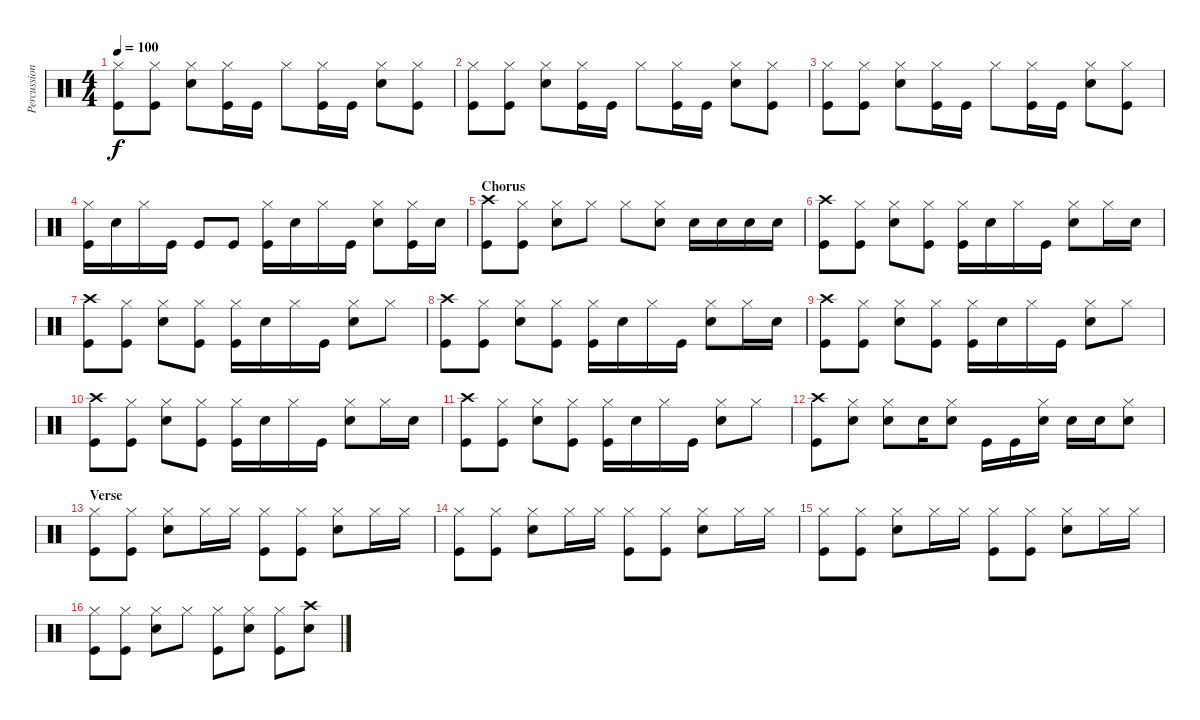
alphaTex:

\track ("Percussion" "Percussion") {instrument percussion}
\staff {score}
\articulation defaults
\ts (4 4)
\tempo 100
\clef neutral
\ks c
("Hi-Hat (closed)" "Kick (hit)").8{dy f} ("Hi-Hat (closed)" "Kick (hit)").8 ("Hi-Hat (closed)" "Snare (hit) 2").8 ("Hi-Hat (closed)" "Kick (hit)").16 "Kick (hit)".16 "Hi-Hat (closed)".8 ("Hi-Hat (closed)" "Kick (hit)").16 "Kick (hit)".16 ("Hi-Hat (closed)" "Snare (hit) 2").8 ("Hi-Hat (closed)" "Kick (hit)").8 |
("Hi-Hat (closed)" "Kick (hit)").8 ("Hi-Hat (closed)" "Kick (hit)").8 ("Hi-Hat (closed)" "Snare (hit) 2").8 ("Hi-Hat (closed)" "Kick (hit)").16 "Kick (hit)".16 "Hi-Hat (closed)".8 ("Hi-Hat (closed)" "Kick (hit)").16 "Kick (hit)".16 ("Hi-Hat (closed)" "Snare (hit) 2").8 ("Hi-Hat (closed)" "Kick (hit)").8 |
("Hi-Hat (closed)" "Kick (hit)").8 ("Hi-Hat (closed)" "Kick (hit)").8 ("Hi-Hat (closed)" "Snare (hit) 2").8 ("Hi-Hat (closed)" "Kick (hit)").16 "Kick (hit)".16 "Hi-Hat (closed)".8 ("Hi-Hat (closed)" "Kick (hit)").16 "Kick (hit)".16 ("Hi-Hat (closed)" "Snare (hit) 2").8 ("Hi-Hat (closed)" "Kick (hit)").8 |
("Hi-Hat (closed)" "Kick (hit)").16 "Snare (hit) 2".16 "Hi-Hat (closed)".16 "Kick (hit)".16 "Kick (hit)".8 "Kick (hit)".8 ("Hi-Hat (closed)" "Kick (hit)").16 "Snare (hit) 2".16 "Hi-Hat (closed)".16 "Kick (hit)".16 ("Hi-Hat (closed)" "Snare (hit) 2").8 ("Hi-Hat (closed)" "Kick (hit)").16 "Snare (hit) 2".16 |
\section ("" "Chorus")
("Crash high (hit)" "Kick (hit)").8 ("Hi-Hat (closed)" "Kick (hit)").8 ("Hi-Hat (closed)" "Snare (hit) 2").8 "Hi-Hat (closed)".8 "Hi-Hat (closed)".8 ("Hi-Hat (closed)" "Snare (hit) 2").8 "Snare (hit) 2".16 "Snare (hit) 2".16 "Snare (hit) 2".16 "Snare (hit) 2".16 |
("Crash high (hit)" "Kick (hit)").8 ("Hi-Hat (closed)" "Kick (hit)").8 ("Hi-Hat (closed)" "Snare (hit) 2").8 ("Hi-Hat (closed)" "Kick (hit)").8 ("Hi-Hat (closed)" "Kick (hit)").16 "Snare (hit) 2".16 "Hi-Hat (closed)".16 "Kick (hit)".16 ("Hi-Hat (closed)" "Snare (hit) 2").8 "Hi-Hat (closed)".16 "Snare (hit) 2".16 |
("Crash high (hit)" "Kick (hit)").8 ("Hi-Hat (closed)" "Kick (hit)").8 ("Hi-Hat (closed)" "Snare (hit) 2").8 ("Hi-Hat (closed)" "Kick (hit)").8 ("Hi-Hat (closed)" "Kick (hit)").16 "Snare (hit) 2".16 "Hi-Hat (closed)".16 "Kick (hit)".16 ("Hi-Hat (closed)" "Snare (hit) 2").8 "Hi-Hat (closed)".8 |
("Crash high (hit)" "Kick (hit)").8 ("Hi-Hat (closed)" "Kick (hit)").8 ("Hi-Hat (closed)" "Snare (hit) 2").8 ("Hi-Hat (closed)" "Kick (hit)").8 ("Hi-Hat (closed)" "Kick (hit)").16 "Snare (hit) 2".16 "Hi-Hat (closed)".16 "Kick (hit)".16 ("Hi-Hat (closed)" "Snare (hit) 2").8 "Hi-Hat (closed)".16 "Snare (hit) 2".16 |
("Crash high (hit)" "Kick (hit)").8 ("Hi-Hat (closed)" "Kick (hit)").8 ("Hi-Hat (closed)" "Snare (hit) 2").8 ("Hi-Hat (closed)" "Kick (hit)").8 ("Hi-Hat (closed)" "Kick (hit)").16 "Snare (hit) 2".16 "Hi-Hat (closed)".16 "Kick (hit)".16 ("Hi-Hat (closed)" "Snare (hit) 2").8 "Hi-Hat (closed)".8 |
("Crash high (hit)" "Kick (hit)").8 ("Hi-Hat (closed)" "Kick (hit)").8 ("Hi-Hat (closed)" "Snare (hit) 2").8 ("Hi-Hat (closed)" "Kick (hit)").8 ("Hi-Hat (closed)" "Kick (hit)").16 "Snare (hit) 2".16 "Hi-Hat (closed)".16 "Kick (hit)".16 ("Hi-Hat (closed)" "Snare (hit) 2").8 "Hi-Hat (closed)".16 "Snare (hit) 2".16 |
("Crash high (hit)" "Kick (hit)").8 ("Hi-Hat (closed)" "Kick (hit)").8 ("Hi-Hat (closed)" "Snare (hit) 2").8 ("Hi-Hat (closed)" "Kick (hit)").8 ("Hi-Hat (closed)" "Kick (hit)").16 "Snare (hit) 2".16 "Hi-Hat (closed)".16 "Kick (hit)".16 ("Hi-Hat (closed)" "Snare (hit) 2").8 "Hi-Hat (closed)".8 |
("Crash high (hit)" "Kick (hit)").8 ("Hi-Hat (closed)" "Snare (hit) 2").8 ("Hi-Hat (closed)" "Snare (hit) 2").8 "Snare (hit) 2".16 ("Hi-Hat (closed)" "Snare (hit) 2").8 "Kick (hit)".16 "Kick (hit)".16 ("Hi-Hat (closed)" "Electric Snare (hit)").16 "Electric Snare (hit)".16 "Snare (hit) 2".16 ("Hi-Hat (closed)" "Electric Snare (hit)").8 |
\section ("" "Verse")
("Hi-Hat (closed)" "Kick (hit)").8 ("Hi-Hat (closed)" "Kick (hit)").8 ("Hi-Hat (closed)" "Snare (hit) 2").8 "Hi-Hat (closed)".16 "Hi-Hat (closed)".16 ("Hi-Hat (closed)" "Kick (hit)").8 ("Hi-Hat (closed)" "Kick (hit)").8 ("Hi-Hat (closed)" "Snare (hit) 2").8 "Hi-Hat (closed)".16 "Hi-Hat (closed)".16 |
("Hi-Hat (closed)" "Kick (hit)").8 ("Hi-Hat (closed)" "Kick (hit)").8 ("Hi-Hat (closed)" "Snare (hit) 2").8 "Hi-Hat (closed)".16 "Hi-Hat (closed)".16 ("Hi-Hat (closed)" "Kick (hit)").8 ("Hi-Hat (closed)" "Kick (hit)").8 ("Hi-Hat (closed)" "Snare (hit) 2").8 "Hi-Hat (closed)".16 "Hi-Hat (closed)".16 |
("Hi-Hat (closed)" "Kick (hit)").8 ("Hi-Hat (closed)" "Kick (hit)").8 ("Hi-Hat (closed)" "Snare (hit) 2").8 "Hi-Hat (closed)".16 "Hi-Hat (closed)".16 ("Hi-Hat (closed)" "Kick (hit)").8 ("Hi-Hat (closed)" "Kick (hit)").8 ("Hi-Hat (closed)" "Snare (hit) 2").8 "Hi-Hat (closed)".16 "Hi-Hat (closed)".16 |
("Hi-Hat (closed)" "Kick (hit)").8 ("Hi-Hat (closed)" "Kick (hit)").8 ("Hi-Hat (closed)" "Snare (hit) 2").8 "Hi-Hat (closed)".8 ("Hi-Hat (closed)" "Kick (hit)").8 ("Hi-Hat (closed)" "Snare (hit) 2").8 ("Hi-Hat (closed)" "Kick (hit)").8 ("Crash high (hit)" "Snare (hit) 2").8
